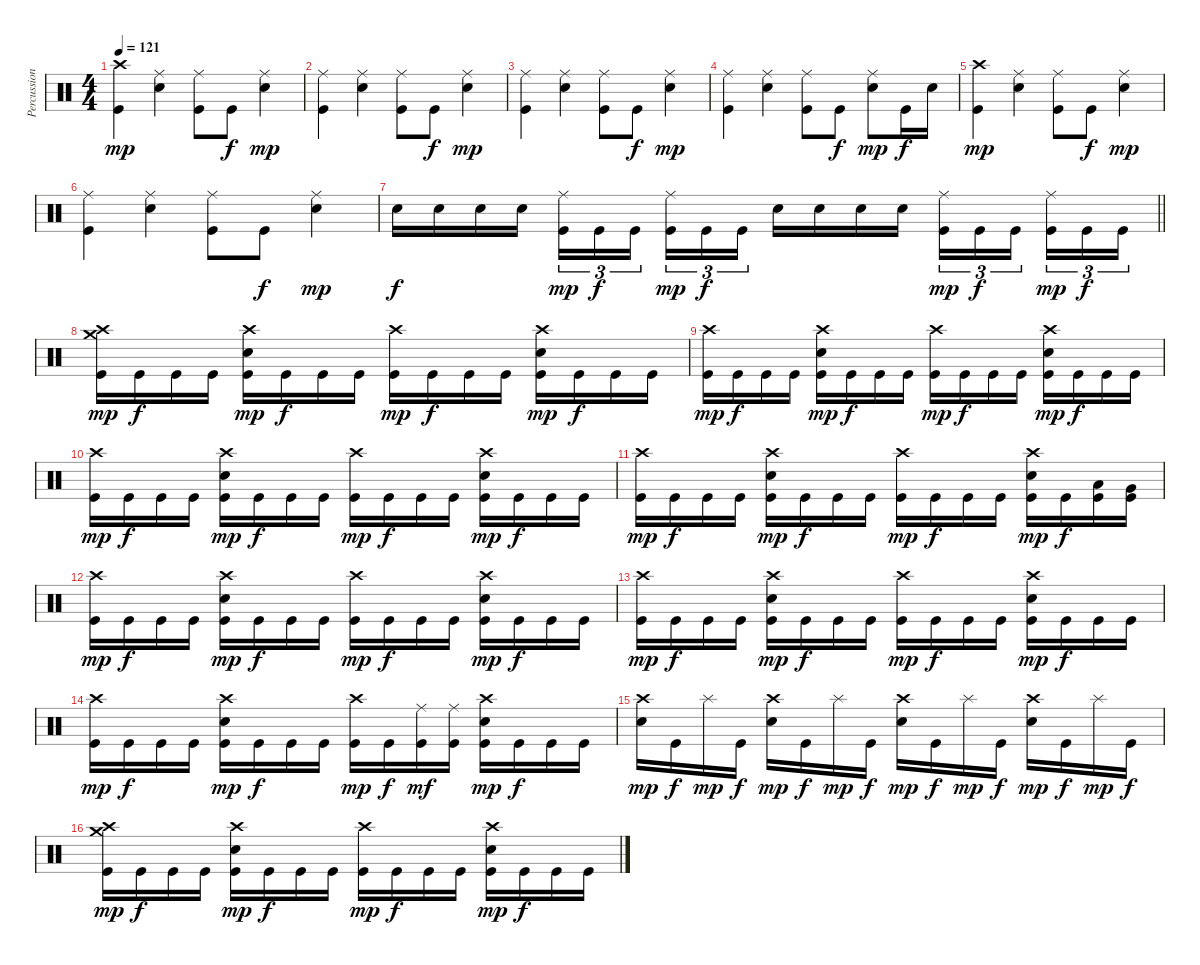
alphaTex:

\track ("Percussion" "Percussion") {instrument percussion}
\staff {score}
\articulation defaults
\ts (4 4)
\section ("" "")
\tempo 121
\clef neutral
\ks c
("Crash high (hit)" "Kick (hit)").4{dy mp} ("Ride (middle)" "Electric Snare (hit)").4 ("Ride (middle)" "Kick (hit)").8 "Kick (hit)".8{dy f} ("Ride (middle)" "Electric Snare (hit)").4{dy mp} |
("Ride (middle)" "Kick (hit)").4 ("Ride (middle)" "Electric Snare (hit)").4 ("Ride (middle)" "Kick (hit)").8 "Kick (hit)".8{dy f} ("Ride (middle)" "Electric Snare (hit)").4{dy mp} |
("Ride (middle)" "Kick (hit)").4 ("Ride (middle)" "Electric Snare (hit)").4 ("Ride (middle)" "Kick (hit)").8 "Kick (hit)".8{dy f} ("Ride (middle)" "Electric Snare (hit)").4{dy mp} |
("Ride (middle)" "Kick (hit)").4 ("Ride (middle)" "Electric Snare (hit)").4 ("Ride (middle)" "Kick (hit)").8 "Kick (hit)".8{dy f} ("Ride (middle)" "Electric Snare (hit)").8{dy mp} "Kick (hit)".16{dy f} "Electric Snare (hit)".16 |
("Crash high (hit)" "Kick (hit)").4{dy mp} ("Ride (middle)" "Electric Snare (hit)").4 ("Ride (middle)" "Kick (hit)").8 "Kick (hit)".8{dy f} ("Ride (middle)" "Electric Snare (hit)").4{dy mp} |
("Ride (middle)" "Kick (hit)").4 ("Ride (middle)" "Electric Snare (hit)").4 ("Ride (middle)" "Kick (hit)").8 "Kick (hit)".8{dy f} ("Ride (middle)" "Electric Snare (hit)").4{dy mp} |
\barLineRight lightlight "Electric Snare (hit)".16{dy f} "Electric Snare (hit)".16 "Electric Snare (hit)".16 "Electric Snare (hit)".16
("Ride (middle)" "Kick (hit)").16{tu (3 2) dy mp} "Kick (hit)".16{tu (3 2) dy f} "Kick (hit)".16{tu (3 2) beam splitsecondary} ("Ride (middle)" "Kick (hit)").16{tu (3 2) dy mp} "Kick (hit)".16{tu (3 2) dy f} "Kick (hit)".16{tu (3 2)} "Electric Snare (hit)".16 "Electric Snare (hit)".16 "Electric Snare (hit)".16 "Electric Snare (hit)".16 ("Ride (middle)" "Kick (hit)").16{tu (3 2) dy mp} "Kick (hit)".16{tu (3 2) dy f} "Kick (hit)".16{tu (3 2) beam splitsecondary} ("Ride (middle)" "Kick (hit)").16{tu (3 2) dy mp} "Kick (hit)".16{tu (3 2) dy f} "Kick (hit)".16{tu (3 2)} |
\section ("" "")
("Crash high (hit)" "Crash medium (hit)" "Kick (hit)").16{dy mp} "Kick (hit)".16{dy f} "Kick (hit)".16 "Kick (hit)".16 ("Crash high (hit)" "Electric Snare (hit)" "Kick (hit)").16{dy mp} "Kick (hit)".16{dy f} "Kick (hit)".16 "Kick (hit)".16 ("Crash high (hit)" "Kick (hit)").16{dy mp} "Kick (hit)".16{dy f} "Kick (hit)".16 "Kick (hit)".16 ("Crash high (hit)" "Electric Snare (hit)" "Kick (hit)").16{dy mp} "Kick (hit)".16{dy f} "Kick (hit)".16 "Kick (hit)".16 |
("Crash high (hit)" "Kick (hit)").16{dy mp} "Kick (hit)".16{dy f} "Kick (hit)".16 "Kick (hit)".16 ("Crash high (hit)" "Electric Snare (hit)" "Kick (hit)").16{dy mp} "Kick (hit)".16{dy f} "Kick (hit)".16 "Kick (hit)".16 ("Crash high (hit)" "Kick (hit)").16{dy mp} "Kick (hit)".16{dy f} "Kick (hit)".16 "Kick (hit)".16 ("Crash high (hit)" "Electric Snare (hit)" "Kick (hit)").16{dy mp} "Kick (hit)".16{dy f} "Kick (hit)".16 "Kick (hit)".16 |
("Crash high (hit)" "Kick (hit)").16{dy mp} "Kick (hit)".16{dy f} "Kick (hit)".16 "Kick (hit)".16 ("Crash high (hit)" "Electric Snare (hit)" "Kick (hit)").16{dy mp} "Kick (hit)".16{dy f} "Kick (hit)".16 "Kick (hit)".16 ("Crash high (hit)" "Kick (hit)").16{dy mp} "Kick (hit)".16{dy f} "Kick (hit)".16 "Kick (hit)".16 ("Crash high (hit)" "Electric Snare (hit)" "Kick (hit)").16{dy mp} "Kick (hit)".16{dy f} "Kick (hit)".16 "Kick (hit)".16 |
("Crash high (hit)" "Kick (hit)").16{dy mp} "Kick (hit)".16{dy f} "Kick (hit)".16 "Kick (hit)".16 ("Crash high (hit)" "Electric Snare (hit)" "Kick (hit)").16{dy mp} "Kick (hit)".16{dy f} "Kick (hit)".16 "Kick (hit)".16 ("Crash high (hit)" "Kick (hit)").16{dy mp} "Kick (hit)".16{dy f} "Kick (hit)".16 "Kick (hit)".16 ("Crash high (hit)" "Electric Snare (hit)" "Kick (hit)").16{dy mp} "Kick (hit)".16{dy f} ("Low Tom (hit)" "Kick (hit)").16 ("Very Low Tom (hit)" "Kick (hit)").16 |
("Crash high (hit)" "Kick (hit)").16{dy mp} "Kick (hit)".16{dy f} "Kick (hit)".16 "Kick (hit)".16 ("Crash high (hit)" "Electric Snare (hit)" "Kick (hit)").16{dy mp} "Kick (hit)".16{dy f} "Kick (hit)".16 "Kick (hit)".16 ("Crash high (hit)" "Kick (hit)").16{dy mp} "Kick (hit)".16{dy f} "Kick (hit)".16 "Kick (hit)".16 ("Crash high (hit)" "Electric Snare (hit)" "Kick (hit)").16{dy mp} "Kick (hit)".16{dy f} "Kick (hit)".16 "Kick (hit)".16 |
("Crash high (hit)" "Kick (hit)").16{dy mp} "Kick (hit)".16{dy f} "Kick (hit)".16 "Kick (hit)".16 ("Crash high (hit)" "Electric Snare (hit)" "Kick (hit)").16{dy mp} "Kick (hit)".16{dy f} "Kick (hit)".16 "Kick (hit)".16 ("Crash high (hit)" "Kick (hit)").16{dy mp} "Kick (hit)".16{dy f} "Kick (hit)".16 "Kick (hit)".16 ("Crash high (hit)" "Electric Snare (hit)" "Kick (hit)").16{dy mp} "Kick (hit)".16{dy f} "Kick (hit)".16 "Kick (hit)".16 |
("Crash high (hit)" "Kick (hit)").16{dy mp} "Kick (hit)".16{dy f} "Kick (hit)".16 "Kick (hit)".16 ("Crash high (hit)" "Electric Snare (hit)" "Kick (hit)").16{dy mp} "Kick (hit)".16{dy f} "Kick (hit)".16 "Kick (hit)".16 ("Crash high (hit)" "Kick (hit)").16{dy mp} "Kick (hit)".16{dy f} ("Ride (middle)" "Kick (hit)").16{dy mf} ("Ride (middle)" "Kick (hit)").16 ("Crash high (hit)" "Electric Snare (hit)" "Kick (hit)").16{dy mp} "Kick (hit)".16{dy f} "Kick (hit)".16 "Kick (hit)".16 |
("Crash high (hit)" "Electric Snare (hit)").16{dy mp} "Kick (hit)".16{dy f} "Splash (hit)".16{dy mp} "Kick (hit)".16{dy f} ("Crash high (hit)" "Electric Snare (hit)").16{dy mp} "Kick (hit)".16{dy f} "Splash (hit)".16{dy mp} "Kick (hit)".16{dy f} ("Crash high (hit)" "Electric Snare (hit)").16{dy mp} "Kick (hit)".16{dy f} "Splash (hit)".16{dy mp} "Kick (hit)".16{dy f} ("Crash high (hit)" "Electric Snare (hit)").16{dy mp} "Kick (hit)".16{dy f} "Splash (hit)".16{dy mp} "Kick (hit)".16{dy f} |
("Crash high (hit)" "Crash medium (hit)" "Kick (hit)").16{dy mp} "Kick (hit)".16{dy f} "Kick (hit)".16 "Kick (hit)".16 ("Crash high (hit)" "Electric Snare (hit)" "Kick (hit)").16{dy mp} "Kick (hit)".16{dy f} "Kick (hit)".16 "Kick (hit)".16 ("Crash high (hit)" "Kick (hit)").16{dy mp} "Kick (hit)".16{dy f} "Kick (hit)".16 "Kick (hit)".16 ("Crash high (hit)" "Electric Snare (hit)" "Kick (hit)").16{dy mp} "Kick (hit)".16{dy f} "Kick (hit)".16 "Kick (hit)".16
